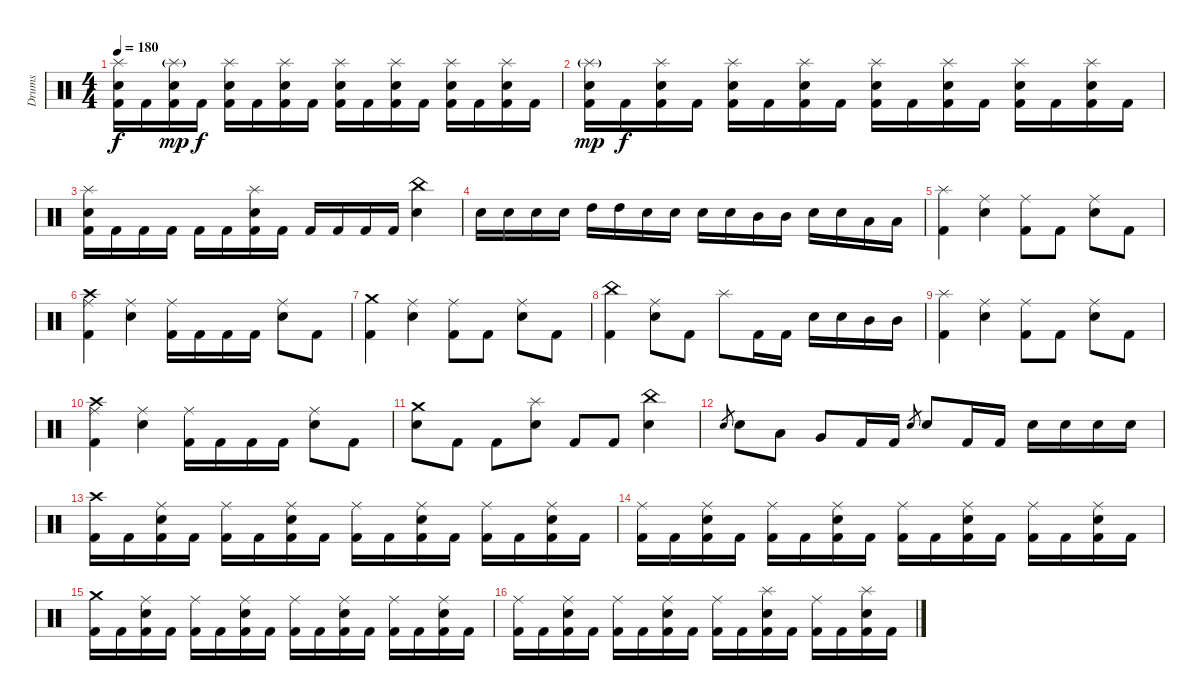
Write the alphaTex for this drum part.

\track ("Drums" "Drums") {instrument percussion}
\staff {score}
\articulation defaults
\ts (4 4)
\tempo 180
\clef neutral
\ks c
("Splash (hit)" "Electric Snare (hit)" "Kick (hit) 2").16{dy f} "Kick (hit) 2".16 ("Splash (hit)"{g} "Electric Snare (hit)" "Kick (hit) 2").16{dy mp} "Kick (hit) 2".16{dy f} ("Splash (hit)" "Electric Snare (hit)" "Kick (hit) 2").16 "Kick (hit) 2".16 ("Splash (hit)" "Electric Snare (hit)" "Kick (hit) 2").16 "Kick (hit) 2".16 ("Splash (hit)" "Electric Snare (hit)" "Kick (hit) 2").16 "Kick (hit) 2".16 ("Splash (hit)" "Electric Snare (hit)" "Kick (hit) 2").16 "Kick (hit) 2".16 ("Splash (hit)" "Electric Snare (hit)" "Kick (hit) 2").16 "Kick (hit) 2".16 ("Splash (hit)" "Electric Snare (hit)" "Kick (hit) 2").16 "Kick (hit) 2".16 |
("Splash (hit)"{g} "Electric Snare (hit)" "Kick (hit) 2").16{dy mp} "Kick (hit) 2".16{dy f} ("Splash (hit)" "Electric Snare (hit)" "Kick (hit) 2").16 "Kick (hit) 2".16 ("Splash (hit)" "Electric Snare (hit)" "Kick (hit) 2").16 "Kick (hit) 2".16 ("Splash (hit)" "Electric Snare (hit)" "Kick (hit) 2").16 "Kick (hit) 2".16 ("Splash (hit)" "Electric Snare (hit)" "Kick (hit) 2").16 "Kick (hit) 2".16 ("Splash (hit)" "Electric Snare (hit)" "Kick (hit) 2").16 "Kick (hit) 2".16 ("Splash (hit)" "Electric Snare (hit)" "Kick (hit) 2").16 "Kick (hit) 2".16 ("Splash (hit)" "Electric Snare (hit)" "Kick (hit) 2").16 "Kick (hit) 2".16 |
("Splash (hit)" "Electric Snare (hit)" "Kick (hit) 2").16 "Kick (hit) 2".16 "Kick (hit) 2".16 "Kick (hit) 2".16 "Kick (hit) 2".16 "Kick (hit) 2".16 ("Splash (hit)" "Electric Snare (hit)" "Kick (hit) 2").16 "Kick (hit) 2".16 "Kick (hit) 2".16 "Kick (hit) 2".16 "Kick (hit) 2".16 "Kick (hit) 2".16 ("China (hit)" "Electric Snare (hit)").4 |
"Electric Snare (hit)".16 "Electric Snare (hit)".16 "Electric Snare (hit)".16 "Electric Snare (hit)".16 "High Tom (hit)".16 "High Tom (hit)".16 "Electric Snare (hit)".16 "Electric Snare (hit)".16 "Electric Snare (hit)".16 "Electric Snare (hit)".16 "Mid Tom (hit)".16 "Mid Tom (hit)".16 "Electric Snare (hit)".16 "Electric Snare (hit)".16 "Low Tom (hit)".16 "Low Tom (hit)".16 |
("Splash (hit)" "Kick (hit) 2").4 ("Ride (middle)" "Electric Snare (hit)").4 ("Ride (middle)" "Kick (hit) 2").8 "Kick (hit) 2".8 ("Ride (middle)" "Electric Snare (hit)").8 "Kick (hit) 2".8 |
("Ride (middle)" "Crash high (hit)" "Kick (hit) 2").4 ("Ride (middle)" "Electric Snare (hit)").4 ("Ride (middle)" "Kick (hit) 2").16 "Kick (hit) 2".16 "Kick (hit) 2".16 "Kick (hit) 2".16 ("Ride (middle)" "Electric Snare (hit)").8 "Kick (hit) 2".8 |
("Crash medium (hit)" "Kick (hit) 2").4 ("Ride (middle)" "Electric Snare (hit)").4 ("Ride (middle)" "Kick (hit) 2").8 "Kick (hit) 2".8 ("Ride (middle)" "Electric Snare (hit)").8 "Kick (hit) 2".8 |
("China (hit)" "Kick (hit) 2").4 ("Ride (middle)" "Electric Snare (hit)").8 "Kick (hit) 2".8 "Splash (hit)".8 "Kick (hit) 2".16 "Kick (hit) 2".16 "Electric Snare (hit)".16 "Electric Snare (hit)".16 "Mid Tom (hit)".16 "Mid Tom (hit)".16 |
("Splash (hit)" "Kick (hit) 2").4 ("Ride (middle)" "Electric Snare (hit)").4 ("Ride (middle)" "Kick (hit) 2").8 "Kick (hit) 2".8 ("Ride (middle)" "Electric Snare (hit)").8 "Kick (hit) 2".8 |
("Ride (middle)" "Crash high (hit)" "Kick (hit) 2").4 ("Ride (middle)" "Electric Snare (hit)").4 ("Ride (middle)" "Kick (hit) 2").16 "Kick (hit) 2".16 "Kick (hit) 2".16 "Kick (hit) 2".16 ("Ride (middle)" "Electric Snare (hit)").8 "Kick (hit) 2".8 |
("Crash medium (hit)" "Electric Snare (hit)").8 "Kick (hit) 2".8 "Kick (hit) 2".8 ("Splash (hit)" "Electric Snare (hit)").8 "Kick (hit) 2".8 "Kick (hit) 2".8 ("China (hit)" "Electric Snare (hit)").4 |
"Electric Snare (hit)".8{gr} "Electric Snare (hit)".8 "Low Tom (hit)".8 "Very Low Tom (hit)".8 "Kick (hit) 2".16 "Kick (hit) 2".16 "Electric Snare (hit)".8{gr} "Electric Snare (hit)".8 "Kick (hit) 2".16 "Kick (hit) 2".16 "Electric Snare (hit)".16 "Electric Snare (hit)".16 "Electric Snare (hit)".16 "Electric Snare (hit)".16 |
("Crash high (hit)" "Kick (hit) 2").16 "Kick (hit) 2".16 ("Ride (middle)" "Electric Snare (hit)" "Kick (hit) 2").16 "Kick (hit) 2".16 ("Ride (middle)" "Kick (hit) 2").16 "Kick (hit) 2".16 ("Ride (middle)" "Electric Snare (hit)" "Kick (hit) 2").16 "Kick (hit) 2".16 ("Ride (middle)" "Kick (hit) 2").16 "Kick (hit) 2".16 ("Ride (middle)" "Electric Snare (hit)" "Kick (hit) 2").16 "Kick (hit) 2".16 ("Ride (middle)" "Kick (hit) 2").16 "Kick (hit) 2".16 ("Ride (middle)" "Electric Snare (hit)" "Kick (hit) 2").16 "Kick (hit) 2".16 |
("Ride (middle)" "Kick (hit) 2").16 "Kick (hit) 2".16 ("Ride (middle)" "Electric Snare (hit)" "Kick (hit) 2").16 "Kick (hit) 2".16 ("Ride (middle)" "Kick (hit) 2").16 "Kick (hit) 2".16 ("Ride (middle)" "Electric Snare (hit)" "Kick (hit) 2").16 "Kick (hit) 2".16 ("Ride (middle)" "Kick (hit) 2").16 "Kick (hit) 2".16 ("Ride (middle)" "Electric Snare (hit)" "Kick (hit) 2").16 "Kick (hit) 2".16 ("Ride (middle)" "Kick (hit) 2").16 "Kick (hit) 2".16 ("Ride (middle)" "Electric Snare (hit)" "Kick (hit) 2").16 "Kick (hit) 2".16 |
("Crash medium (hit)" "Kick (hit) 2").16 "Kick (hit) 2".16 ("Ride (middle)" "Electric Snare (hit)" "Kick (hit) 2").16 "Kick (hit) 2".16 ("Ride (middle)" "Kick (hit) 2").16 "Kick (hit) 2".16 ("Ride (middle)" "Electric Snare (hit)" "Kick (hit) 2").16 "Kick (hit) 2".16 ("Ride (middle)" "Kick (hit) 2").16 "Kick (hit) 2".16 ("Ride (middle)" "Electric Snare (hit)" "Kick (hit) 2").16 "Kick (hit) 2".16 ("Ride (middle)" "Kick (hit) 2").16 "Kick (hit) 2".16 ("Ride (middle)" "Electric Snare (hit)" "Kick (hit) 2").16 "Kick (hit) 2".16 |
("Ride (middle)" "Kick (hit) 2").16 "Kick (hit) 2".16 ("Ride (middle)" "Electric Snare (hit)" "Kick (hit) 2").16 "Kick (hit) 2".16 ("Ride (middle)" "Kick (hit) 2").16 "Kick (hit) 2".16 ("Ride (middle)" "Electric Snare (hit)" "Kick (hit) 2").16 "Kick (hit) 2".16 ("Ride (middle)" "Kick (hit) 2").16 "Kick (hit) 2".16 ("Splash (hit)" "Electric Snare (hit)" "Kick (hit) 2").16 "Kick (hit) 2".16 ("Ride (middle)" "Kick (hit) 2").16 "Kick (hit) 2".16 ("Splash (hit)" "Electric Snare (hit)" "Kick (hit) 2").16 "Kick (hit) 2".16
